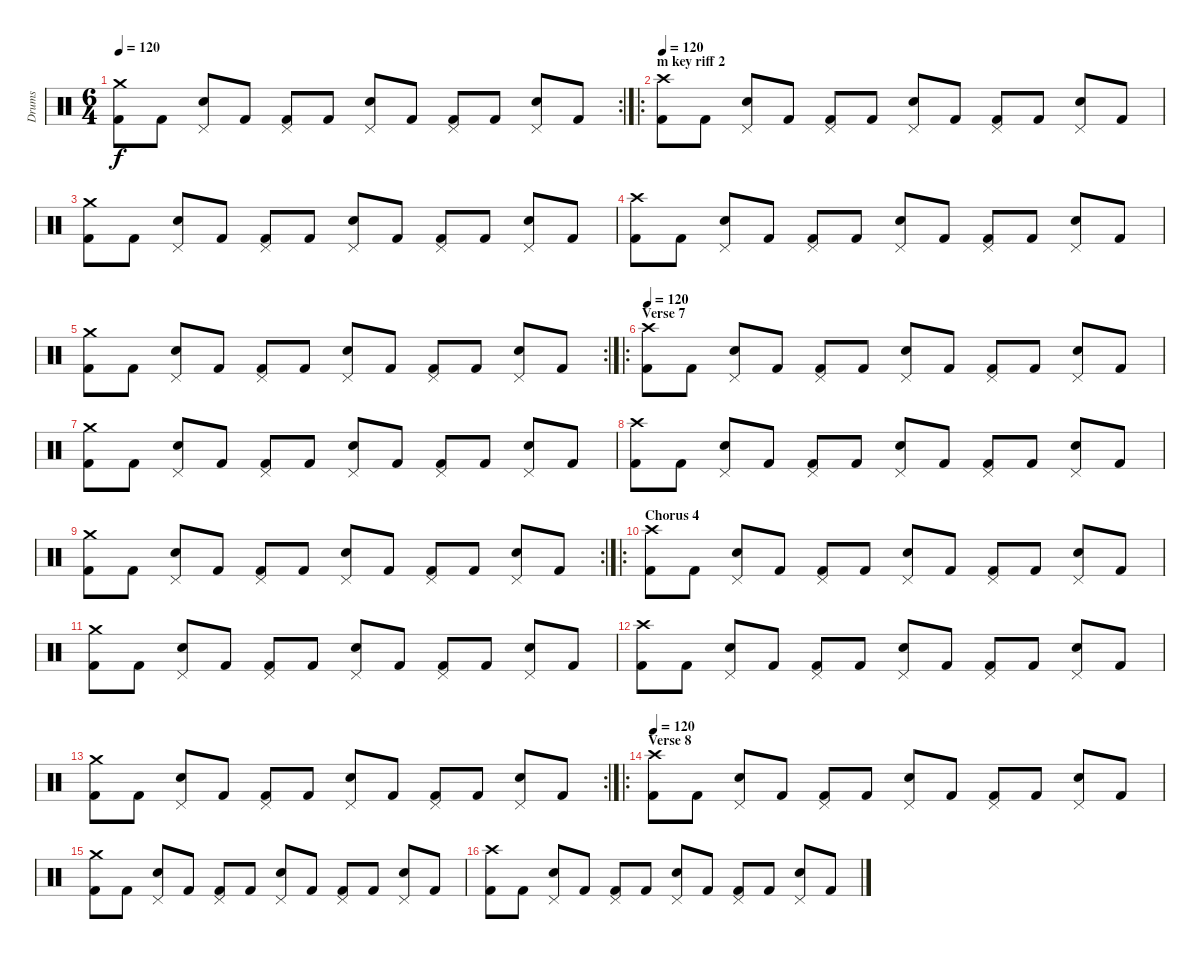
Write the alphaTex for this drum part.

\track ("Drums" "Drums") {instrument percussion}
\staff {score}
\articulation defaults
\rc 2
\ts (6 4)
\tempo 120
\clef neutral
\ks c
("Crash medium (hit)" "Kick (hit) 2").8{dy f} "Kick (hit) 2".8 ("Pedal Hi-Hat (hit)" "Snare (hit) 2").8 "Kick (hit) 2".8 ("Pedal Hi-Hat (hit)" "Kick (hit) 2").8 "Kick (hit) 2".8 ("Pedal Hi-Hat (hit)" "Snare (hit) 2").8 "Kick (hit) 2".8 ("Pedal Hi-Hat (hit)" "Kick (hit) 2").8 "Kick (hit) 2".8 ("Pedal Hi-Hat (hit)" "Snare (hit) 2").8 "Kick (hit) 2".8 |
\ro
\section ("" "m key riff 2")
\tempo 120
("Crash high (hit)" "Kick (hit) 2").8 "Kick (hit) 2".8 ("Pedal Hi-Hat (hit)" "Snare (hit) 2").8 "Kick (hit) 2".8 ("Pedal Hi-Hat (hit)" "Kick (hit) 2").8 "Kick (hit) 2".8 ("Pedal Hi-Hat (hit)" "Snare (hit) 2").8 "Kick (hit) 2".8 ("Pedal Hi-Hat (hit)" "Kick (hit) 2").8 "Kick (hit) 2".8 ("Pedal Hi-Hat (hit)" "Snare (hit) 2").8 "Kick (hit) 2".8 |
("Crash medium (hit)" "Kick (hit) 2").8 "Kick (hit) 2".8 ("Pedal Hi-Hat (hit)" "Snare (hit) 2").8 "Kick (hit) 2".8 ("Pedal Hi-Hat (hit)" "Kick (hit) 2").8 "Kick (hit) 2".8 ("Pedal Hi-Hat (hit)" "Snare (hit) 2").8 "Kick (hit) 2".8 ("Pedal Hi-Hat (hit)" "Kick (hit) 2").8 "Kick (hit) 2".8 ("Pedal Hi-Hat (hit)" "Snare (hit) 2").8 "Kick (hit) 2".8 |
("Crash high (hit)" "Kick (hit) 2").8 "Kick (hit) 2".8 ("Pedal Hi-Hat (hit)" "Snare (hit) 2").8 "Kick (hit) 2".8 ("Pedal Hi-Hat (hit)" "Kick (hit) 2").8 "Kick (hit) 2".8 ("Pedal Hi-Hat (hit)" "Snare (hit) 2").8 "Kick (hit) 2".8 ("Pedal Hi-Hat (hit)" "Kick (hit) 2").8 "Kick (hit) 2".8 ("Pedal Hi-Hat (hit)" "Snare (hit) 2").8 "Kick (hit) 2".8 |
\rc 2
("Crash medium (hit)" "Kick (hit) 2").8 "Kick (hit) 2".8 ("Pedal Hi-Hat (hit)" "Snare (hit) 2").8 "Kick (hit) 2".8 ("Pedal Hi-Hat (hit)" "Kick (hit) 2").8 "Kick (hit) 2".8 ("Pedal Hi-Hat (hit)" "Snare (hit) 2").8 "Kick (hit) 2".8 ("Pedal Hi-Hat (hit)" "Kick (hit) 2").8 "Kick (hit) 2".8 ("Pedal Hi-Hat (hit)" "Snare (hit) 2").8 "Kick (hit) 2".8 |
\ro
\section ("" "Verse 7")
\tempo 120
("Crash high (hit)" "Kick (hit) 2").8 "Kick (hit) 2".8 ("Pedal Hi-Hat (hit)" "Snare (hit) 2").8 "Kick (hit) 2".8 ("Pedal Hi-Hat (hit)" "Kick (hit) 2").8 "Kick (hit) 2".8 ("Pedal Hi-Hat (hit)" "Snare (hit) 2").8 "Kick (hit) 2".8 ("Pedal Hi-Hat (hit)" "Kick (hit) 2").8 "Kick (hit) 2".8 ("Pedal Hi-Hat (hit)" "Snare (hit) 2").8 "Kick (hit) 2".8 |
("Crash medium (hit)" "Kick (hit) 2").8 "Kick (hit) 2".8 ("Pedal Hi-Hat (hit)" "Snare (hit) 2").8 "Kick (hit) 2".8 ("Pedal Hi-Hat (hit)" "Kick (hit) 2").8 "Kick (hit) 2".8 ("Pedal Hi-Hat (hit)" "Snare (hit) 2").8 "Kick (hit) 2".8 ("Pedal Hi-Hat (hit)" "Kick (hit) 2").8 "Kick (hit) 2".8 ("Pedal Hi-Hat (hit)" "Snare (hit) 2").8 "Kick (hit) 2".8 |
("Crash high (hit)" "Kick (hit) 2").8 "Kick (hit) 2".8 ("Pedal Hi-Hat (hit)" "Snare (hit) 2").8 "Kick (hit) 2".8 ("Pedal Hi-Hat (hit)" "Kick (hit) 2").8 "Kick (hit) 2".8 ("Pedal Hi-Hat (hit)" "Snare (hit) 2").8 "Kick (hit) 2".8 ("Pedal Hi-Hat (hit)" "Kick (hit) 2").8 "Kick (hit) 2".8 ("Pedal Hi-Hat (hit)" "Snare (hit) 2").8 "Kick (hit) 2".8 |
\rc 2
("Crash medium (hit)" "Kick (hit) 2").8 "Kick (hit) 2".8 ("Pedal Hi-Hat (hit)" "Snare (hit) 2").8 "Kick (hit) 2".8 ("Pedal Hi-Hat (hit)" "Kick (hit) 2").8 "Kick (hit) 2".8 ("Pedal Hi-Hat (hit)" "Snare (hit) 2").8 "Kick (hit) 2".8 ("Pedal Hi-Hat (hit)" "Kick (hit) 2").8 "Kick (hit) 2".8 ("Pedal Hi-Hat (hit)" "Snare (hit) 2").8 "Kick (hit) 2".8 |
\ro
\section ("" "Chorus 4")
("Crash high (hit)" "Kick (hit) 2").8 "Kick (hit) 2".8 ("Pedal Hi-Hat (hit)" "Snare (hit) 2").8 "Kick (hit) 2".8 ("Pedal Hi-Hat (hit)" "Kick (hit) 2").8 "Kick (hit) 2".8 ("Pedal Hi-Hat (hit)" "Snare (hit) 2").8 "Kick (hit) 2".8 ("Pedal Hi-Hat (hit)" "Kick (hit) 2").8 "Kick (hit) 2".8 ("Pedal Hi-Hat (hit)" "Snare (hit) 2").8 "Kick (hit) 2".8 |
("Crash medium (hit)" "Kick (hit) 2").8 "Kick (hit) 2".8 ("Pedal Hi-Hat (hit)" "Snare (hit) 2").8 "Kick (hit) 2".8 ("Pedal Hi-Hat (hit)" "Kick (hit) 2").8 "Kick (hit) 2".8 ("Pedal Hi-Hat (hit)" "Snare (hit) 2").8 "Kick (hit) 2".8 ("Pedal Hi-Hat (hit)" "Kick (hit) 2").8 "Kick (hit) 2".8 ("Pedal Hi-Hat (hit)" "Snare (hit) 2").8 "Kick (hit) 2".8 |
("Crash high (hit)" "Kick (hit) 2").8 "Kick (hit) 2".8 ("Pedal Hi-Hat (hit)" "Snare (hit) 2").8 "Kick (hit) 2".8 ("Pedal Hi-Hat (hit)" "Kick (hit) 2").8 "Kick (hit) 2".8 ("Pedal Hi-Hat (hit)" "Snare (hit) 2").8 "Kick (hit) 2".8 ("Pedal Hi-Hat (hit)" "Kick (hit) 2").8 "Kick (hit) 2".8 ("Pedal Hi-Hat (hit)" "Snare (hit) 2").8 "Kick (hit) 2".8 |
\rc 2
("Crash medium (hit)" "Kick (hit) 2").8 "Kick (hit) 2".8 ("Pedal Hi-Hat (hit)" "Snare (hit) 2").8 "Kick (hit) 2".8 ("Pedal Hi-Hat (hit)" "Kick (hit) 2").8 "Kick (hit) 2".8 ("Pedal Hi-Hat (hit)" "Snare (hit) 2").8 "Kick (hit) 2".8 ("Pedal Hi-Hat (hit)" "Kick (hit) 2").8 "Kick (hit) 2".8 ("Pedal Hi-Hat (hit)" "Snare (hit) 2").8 "Kick (hit) 2".8 |
\ro
\section ("" "Verse 8")
\tempo 120
("Crash high (hit)" "Kick (hit) 2").8 "Kick (hit) 2".8 ("Pedal Hi-Hat (hit)" "Snare (hit) 2").8 "Kick (hit) 2".8 ("Pedal Hi-Hat (hit)" "Kick (hit) 2").8 "Kick (hit) 2".8 ("Pedal Hi-Hat (hit)" "Snare (hit) 2").8 "Kick (hit) 2".8 ("Pedal Hi-Hat (hit)" "Kick (hit) 2").8 "Kick (hit) 2".8 ("Pedal Hi-Hat (hit)" "Snare (hit) 2").8 "Kick (hit) 2".8 |
("Crash medium (hit)" "Kick (hit) 2").8 "Kick (hit) 2".8 ("Pedal Hi-Hat (hit)" "Snare (hit) 2").8 "Kick (hit) 2".8 ("Pedal Hi-Hat (hit)" "Kick (hit) 2").8 "Kick (hit) 2".8 ("Pedal Hi-Hat (hit)" "Snare (hit) 2").8 "Kick (hit) 2".8 ("Pedal Hi-Hat (hit)" "Kick (hit) 2").8 "Kick (hit) 2".8 ("Pedal Hi-Hat (hit)" "Snare (hit) 2").8 "Kick (hit) 2".8 |
("Crash high (hit)" "Kick (hit) 2").8 "Kick (hit) 2".8 ("Pedal Hi-Hat (hit)" "Snare (hit) 2").8 "Kick (hit) 2".8 ("Pedal Hi-Hat (hit)" "Kick (hit) 2").8 "Kick (hit) 2".8 ("Pedal Hi-Hat (hit)" "Snare (hit) 2").8 "Kick (hit) 2".8 ("Pedal Hi-Hat (hit)" "Kick (hit) 2").8 "Kick (hit) 2".8 ("Pedal Hi-Hat (hit)" "Snare (hit) 2").8 "Kick (hit) 2".8
